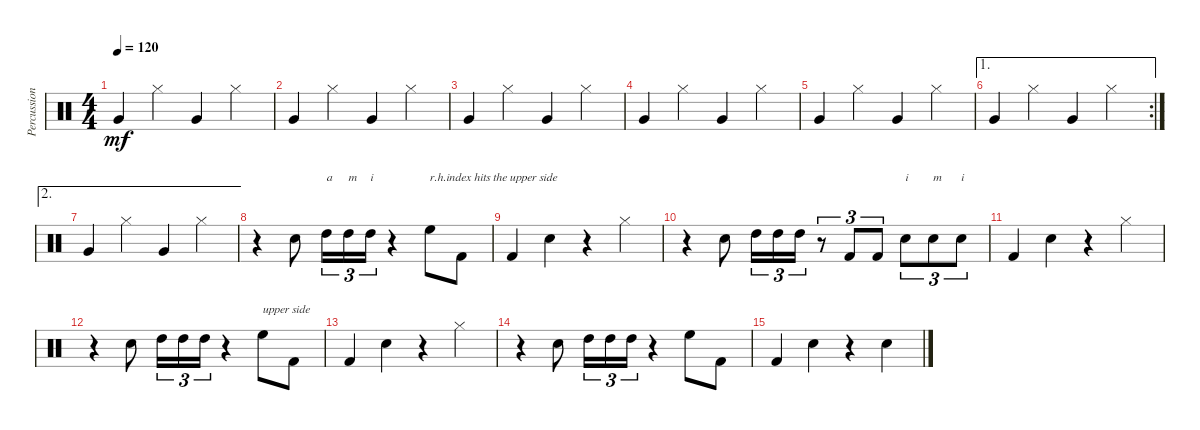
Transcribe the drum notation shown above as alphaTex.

\track ("Percussions 1" "Percussion") {instrument percussion}
\staff {score}
\articulation defaults
\ts (4 4)
\tempo 120
\clef neutral
\ks c "Very Low Tom (hit)".4{dy mf} "Hi-Hat (closed)".4 "Very Low Tom (hit)".4 "Hi-Hat (closed)".4
|
"Very Low Tom (hit)".4 "Hi-Hat (closed)".4 "Very Low Tom (hit)".4 "Hi-Hat (closed)".4 |
"Very Low Tom (hit)".4 "Hi-Hat (closed)".4 "Very Low Tom (hit)".4 "Hi-Hat (closed)".4 |
"Very Low Tom (hit)".4 "Hi-Hat (closed)".4 "Very Low Tom (hit)".4 "Hi-Hat (closed)".4 |
"Very Low Tom (hit)".4 "Hi-Hat (closed)".4 "Very Low Tom (hit)".4 "Hi-Hat (closed)".4 |
\ae 1
\rc 2 "Very Low Tom (hit)".4 "Hi-Hat (closed)".4 "Very Low Tom (hit)".4 "Hi-Hat (closed)".4
|
\ae 2 "Very Low Tom (hit)".4 "Hi-Hat (closed)".4 "Very Low Tom (hit)".4 "Hi-Hat (closed)".4
|
r.4 "Snare (hit) 2".8 "High Tom (hit)".16{tu (3 2) txt "a"} "High Tom (hit)".16{tu (3 2) txt "m"} "High Tom (hit)".16{tu (3 2) txt "i"} r.4 "High Floor Tom (hit)".8{txt "r.h.index hits the upper side"} "Kick (hit) 2".8 |
"Kick (hit) 2".4 "Snare (hit) 2".4 r.4 "Hi-Hat (closed)".4 |
r.4 "Snare (hit) 2".8 "High Tom (hit)".16{tu (3 2)} "High Tom (hit)".16{tu (3 2)} "High Tom (hit)".16{tu (3 2)} r.8{tu (3 2)} "Kick (hit) 2".8{tu (3 2)} "Kick (hit) 2".8{tu (3 2)} "Snare (hit) 2".8{tu (3 2) txt "i"} "Snare (hit) 2".8{tu (3 2) txt "m"} "Snare (hit) 2".8{tu (3 2) txt "i"} |
"Kick (hit) 2".4 "Snare (hit) 2".4 r.4 "Hi-Hat (closed)".4 |
r.4 "Snare (hit) 2".8 "High Tom (hit)".16{tu (3 2)} "High Tom (hit)".16{tu (3 2)} "High Tom (hit)".16{tu (3 2)} r.4 "High Floor Tom (hit)".8{txt "upper side"} "Kick (hit) 2".8 |
"Kick (hit) 2".4 "Snare (hit) 2".4 r.4 "Hi-Hat (closed)".4 |
r.4 "Snare (hit) 2".8 "High Tom (hit)".16{tu (3 2)} "High Tom (hit)".16{tu (3 2)} "High Tom (hit)".16{tu (3 2)} r.4 "High Floor Tom (hit)".8 "Kick (hit) 2".8 |
"Kick (hit) 2".4 "Snare (hit) 2".4 r.4 "Snare (hit) 2".4
